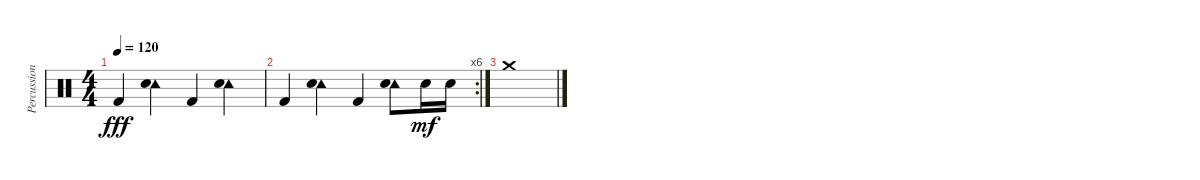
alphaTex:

\track ("Percussion" "Percussion") {instrument percussion}
\staff {score}
\articulation defaults
\ts (4 4)
\tempo 120
\clef neutral
\ks c "Kick (hit) 2".4{dy fff}
("Tambourine (hit)" "Electric Snare (hit)").4 "Kick (hit) 2".4 ("Tambourine (hit)" "Electric Snare (hit)").4 |
\rc 6 "Kick (hit) 2".4
("Tambourine (hit)" "Electric Snare (hit)").4 "Kick (hit) 2".4 ("Tambourine (hit)" "Electric Snare (hit)").8 "Electric Snare (hit)".16{dy mf} "Electric Snare (hit)".16 |
"Crash medium (hit)".1
